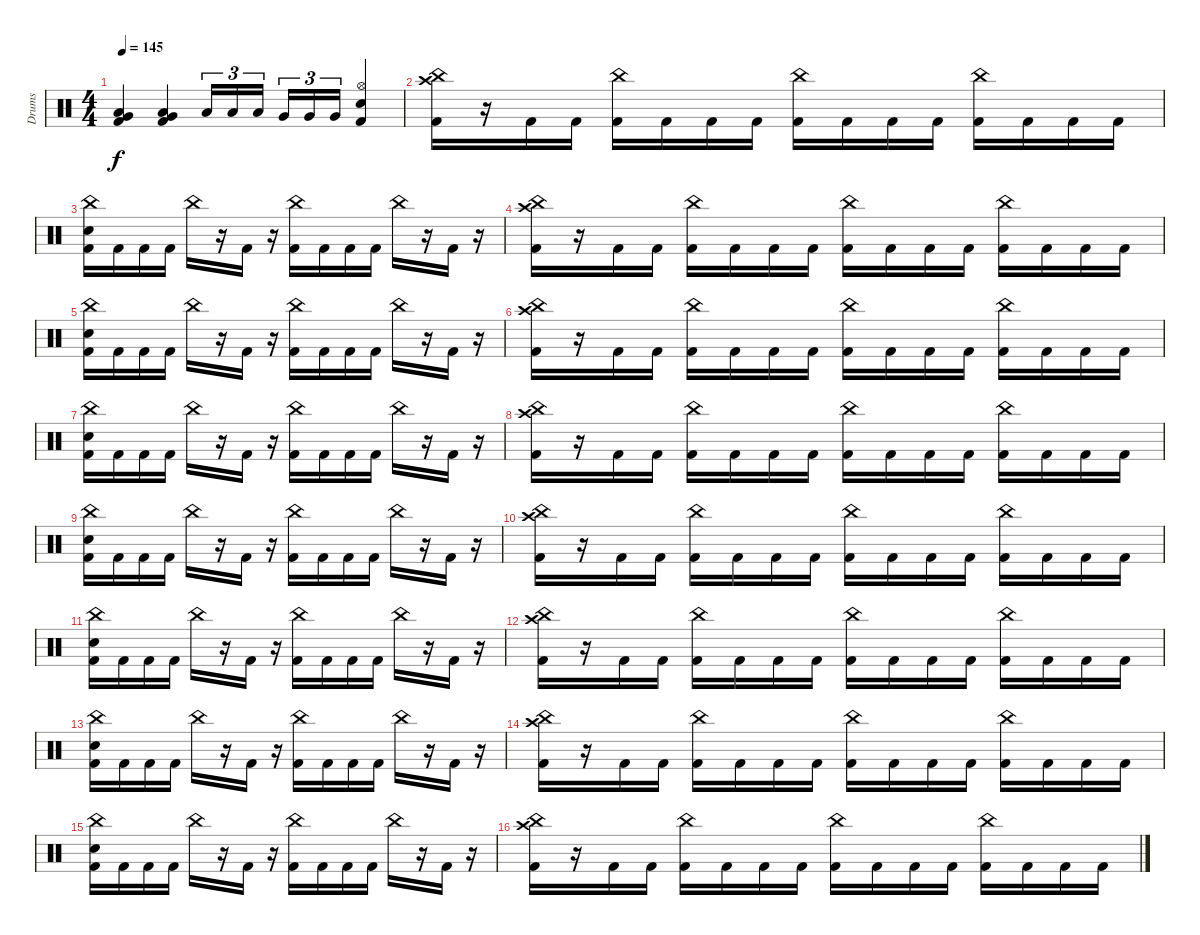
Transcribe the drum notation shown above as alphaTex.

\track ("Drums" "Drums") {instrument percussion}
\staff {score}
\articulation defaults
\ts (4 4)
\tempo 145
\clef neutral
\ks c
("Low Floor Tom (hit)" "Very Low Tom (hit)" "Kick (hit) 2").4{dy f} ("Low Floor Tom (hit)" "Very Low Tom (hit)" "Kick (hit) 2").4 "Low Tom (hit)".16{tu (3 2)} "Low Tom (hit)".16{tu (3 2)} "Low Tom (hit)".16{tu (3 2) beam splitsecondary} "Very Low Tom (hit)".16{tu (3 2)} "Very Low Tom (hit)".16{tu (3 2)} "Very Low Tom (hit)".16{tu (3 2)} ("Hi-Hat (open)" "Electric Snare (hit)" "Kick (hit) 2").4 |
("Crash high (hit)" "China (hit)" "Kick (hit) 2").16 r.16 "Kick (hit) 2".16 "Kick (hit) 2".16 ("China (hit)" "Kick (hit) 2").16 "Kick (hit) 2".16 "Kick (hit) 2".16 "Kick (hit) 2".16 ("China (hit)" "Kick (hit) 2").16 "Kick (hit) 2".16 "Kick (hit) 2".16 "Kick (hit) 2".16 ("China (hit)" "Kick (hit) 2").16 "Kick (hit) 2".16 "Kick (hit) 2".16 "Kick (hit) 2".16 |
("China (hit)" "Electric Snare (hit)" "Kick (hit) 2").16 "Kick (hit) 2".16 "Kick (hit) 2".16 "Kick (hit) 2".16 "China (hit)".16 r.16 "Kick (hit) 2".16 r.16 ("China (hit)" "Kick (hit) 2").16 "Kick (hit) 2".16 "Kick (hit) 2".16 "Kick (hit) 2".16 "China (hit)".16 r.16 "Kick (hit) 2".16 r.16 |
("Crash high (hit)" "China (hit)" "Kick (hit) 2").16 r.16 "Kick (hit) 2".16 "Kick (hit) 2".16 ("China (hit)" "Kick (hit) 2").16 "Kick (hit) 2".16 "Kick (hit) 2".16 "Kick (hit) 2".16 ("China (hit)" "Kick (hit) 2").16 "Kick (hit) 2".16 "Kick (hit) 2".16 "Kick (hit) 2".16 ("China (hit)" "Kick (hit) 2").16 "Kick (hit) 2".16 "Kick (hit) 2".16 "Kick (hit) 2".16 |
("China (hit)" "Electric Snare (hit)" "Kick (hit) 2").16 "Kick (hit) 2".16 "Kick (hit) 2".16 "Kick (hit) 2".16 "China (hit)".16 r.16 "Kick (hit) 2".16 r.16 ("China (hit)" "Kick (hit) 2").16 "Kick (hit) 2".16 "Kick (hit) 2".16 "Kick (hit) 2".16 "China (hit)".16 r.16 "Kick (hit) 2".16 r.16 |
("Crash high (hit)" "China (hit)" "Kick (hit) 2").16 r.16 "Kick (hit) 2".16 "Kick (hit) 2".16 ("China (hit)" "Kick (hit) 2").16 "Kick (hit) 2".16 "Kick (hit) 2".16 "Kick (hit) 2".16 ("China (hit)" "Kick (hit) 2").16 "Kick (hit) 2".16 "Kick (hit) 2".16 "Kick (hit) 2".16 ("China (hit)" "Kick (hit) 2").16 "Kick (hit) 2".16 "Kick (hit) 2".16 "Kick (hit) 2".16 |
("China (hit)" "Electric Snare (hit)" "Kick (hit) 2").16 "Kick (hit) 2".16 "Kick (hit) 2".16 "Kick (hit) 2".16 "China (hit)".16 r.16 "Kick (hit) 2".16 r.16 ("China (hit)" "Kick (hit) 2").16 "Kick (hit) 2".16 "Kick (hit) 2".16 "Kick (hit) 2".16 "China (hit)".16 r.16 "Kick (hit) 2".16 r.16 |
("Crash high (hit)" "China (hit)" "Kick (hit) 2").16 r.16 "Kick (hit) 2".16 "Kick (hit) 2".16 ("China (hit)" "Kick (hit) 2").16 "Kick (hit) 2".16 "Kick (hit) 2".16 "Kick (hit) 2".16 ("China (hit)" "Kick (hit) 2").16 "Kick (hit) 2".16 "Kick (hit) 2".16 "Kick (hit) 2".16 ("China (hit)" "Kick (hit) 2").16 "Kick (hit) 2".16 "Kick (hit) 2".16 "Kick (hit) 2".16 |
("China (hit)" "Electric Snare (hit)" "Kick (hit) 2").16 "Kick (hit) 2".16 "Kick (hit) 2".16 "Kick (hit) 2".16 "China (hit)".16 r.16 "Kick (hit) 2".16 r.16 ("China (hit)" "Kick (hit) 2").16 "Kick (hit) 2".16 "Kick (hit) 2".16 "Kick (hit) 2".16 "China (hit)".16 r.16 "Kick (hit) 2".16 r.16 |
("Crash high (hit)" "China (hit)" "Kick (hit) 2").16 r.16 "Kick (hit) 2".16 "Kick (hit) 2".16 ("China (hit)" "Kick (hit) 2").16 "Kick (hit) 2".16 "Kick (hit) 2".16 "Kick (hit) 2".16 ("China (hit)" "Kick (hit) 2").16 "Kick (hit) 2".16 "Kick (hit) 2".16 "Kick (hit) 2".16 ("China (hit)" "Kick (hit) 2").16 "Kick (hit) 2".16 "Kick (hit) 2".16 "Kick (hit) 2".16 |
("China (hit)" "Electric Snare (hit)" "Kick (hit) 2").16 "Kick (hit) 2".16 "Kick (hit) 2".16 "Kick (hit) 2".16 "China (hit)".16 r.16 "Kick (hit) 2".16 r.16 ("China (hit)" "Kick (hit) 2").16 "Kick (hit) 2".16 "Kick (hit) 2".16 "Kick (hit) 2".16 "China (hit)".16 r.16 "Kick (hit) 2".16 r.16 |
("Crash high (hit)" "China (hit)" "Kick (hit) 2").16 r.16 "Kick (hit) 2".16 "Kick (hit) 2".16 ("China (hit)" "Kick (hit) 2").16 "Kick (hit) 2".16 "Kick (hit) 2".16 "Kick (hit) 2".16 ("China (hit)" "Kick (hit) 2").16 "Kick (hit) 2".16 "Kick (hit) 2".16 "Kick (hit) 2".16 ("China (hit)" "Kick (hit) 2").16 "Kick (hit) 2".16 "Kick (hit) 2".16 "Kick (hit) 2".16 |
("China (hit)" "Electric Snare (hit)" "Kick (hit) 2").16 "Kick (hit) 2".16 "Kick (hit) 2".16 "Kick (hit) 2".16 "China (hit)".16 r.16 "Kick (hit) 2".16 r.16 ("China (hit)" "Kick (hit) 2").16 "Kick (hit) 2".16 "Kick (hit) 2".16 "Kick (hit) 2".16 "China (hit)".16 r.16 "Kick (hit) 2".16 r.16 |
("Crash high (hit)" "China (hit)" "Kick (hit) 2").16 r.16 "Kick (hit) 2".16 "Kick (hit) 2".16 ("China (hit)" "Kick (hit) 2").16 "Kick (hit) 2".16 "Kick (hit) 2".16 "Kick (hit) 2".16 ("China (hit)" "Kick (hit) 2").16 "Kick (hit) 2".16 "Kick (hit) 2".16 "Kick (hit) 2".16 ("China (hit)" "Kick (hit) 2").16 "Kick (hit) 2".16 "Kick (hit) 2".16 "Kick (hit) 2".16 |
("China (hit)" "Electric Snare (hit)" "Kick (hit) 2").16 "Kick (hit) 2".16 "Kick (hit) 2".16 "Kick (hit) 2".16 "China (hit)".16 r.16 "Kick (hit) 2".16 r.16 ("China (hit)" "Kick (hit) 2").16 "Kick (hit) 2".16 "Kick (hit) 2".16 "Kick (hit) 2".16 "China (hit)".16 r.16 "Kick (hit) 2".16 r.16 |
("Crash high (hit)" "China (hit)" "Kick (hit) 2").16 r.16 "Kick (hit) 2".16 "Kick (hit) 2".16 ("China (hit)" "Kick (hit) 2").16 "Kick (hit) 2".16 "Kick (hit) 2".16 "Kick (hit) 2".16 ("China (hit)" "Kick (hit) 2").16 "Kick (hit) 2".16 "Kick (hit) 2".16 "Kick (hit) 2".16 ("China (hit)" "Kick (hit) 2").16 "Kick (hit) 2".16 "Kick (hit) 2".16 "Kick (hit) 2".16
